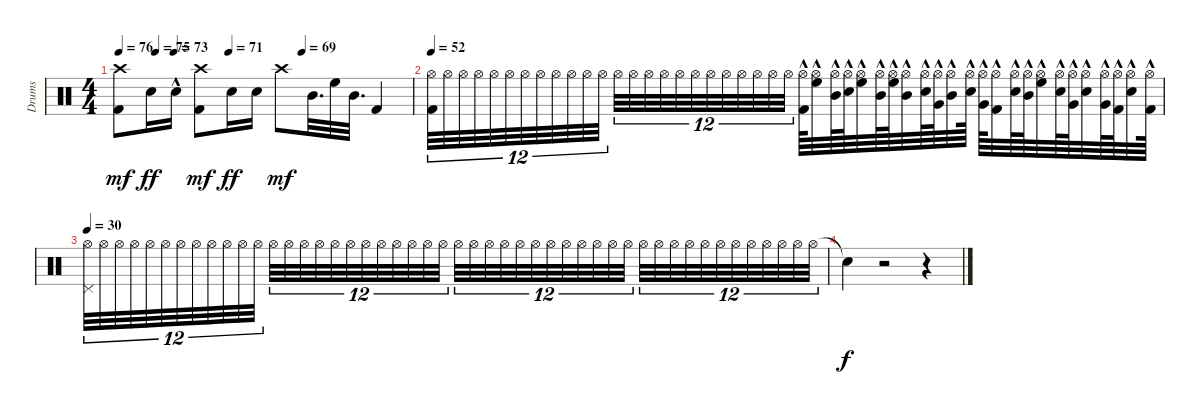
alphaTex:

\track ("Drums" "Drums") {instrument percussion}
\staff {score}
\articulation defaults
\ts (4 4)
\tempo 76
\tempo (75 0.125)
\tempo (73 0.1875)
\tempo (71 0.375)
\tempo (69 0.625)
\clef neutral
\ks c
("Kick (hit) 2" "Crash high (hit)").8{dy mf volume 8} "Snare (hit) 2".16{dy ff volume 9} "Snare (hit) 2"{hac}.16{volume 10} ("Kick (hit) 2" "Crash high (hit)").8{dy mf volume 11} "Snare (hit) 2".16{dy ff volume 12} "Snare (hit) 2".16{volume 13} "Crash high (hit)".8{dy mf volume 14} "Mid Tom (hit)".32{d} "High Floor Tom (hit)".32 "Mid Tom (hit)".32{d} "Kick (hit) 2".4 |
\tempo 52
("Kick (hit) 2" "Hi-Hat (open)").32{tu (12 8)} "Hi-Hat (open)".32{tu (12 8)} "Hi-Hat (open)".32{tu (12 8)} "Hi-Hat (open)".32{tu (12 8)} "Hi-Hat (open)".32{tu (12 8)} "Hi-Hat (open)".32{tu (12 8)} "Hi-Hat (open)".32{tu (12 8)} "Hi-Hat (open)".32{tu (12 8)} "Hi-Hat (open)".32{tu (12 8)} "Hi-Hat (open)".32{tu (12 8)} "Hi-Hat (open)".32{tu (12 8)} "Hi-Hat (open)".32{tu (12 8)} "Hi-Hat (open)".32{tu (12 8)} "Hi-Hat (open)".32{tu (12 8)} "Hi-Hat (open)".32{tu (12 8)} "Hi-Hat (open)".32{tu (12 8)} "Hi-Hat (open)".32{tu (12 8)} "Hi-Hat (open)".32{tu (12 8)} "Hi-Hat (open)".32{tu (12 8)} "Hi-Hat (open)".32{tu (12 8)} "Hi-Hat (open)".32{tu (12 8)} "Hi-Hat (open)".32{tu (12 8)} "Hi-Hat (open)".32{tu (12 8)} "Hi-Hat (open)".32{tu (12 8)} ("Kick (hit) 2"{hac} "Hi-Hat (open)").64 ("Hi-Hat (open)" "High Floor Tom (hit)"{hac}).32 ("Hi-Hat (open)" "Mid Tom (hit)"{hac}).64 ("Snare (hit) 2"{hac} "Hi-Hat (open)").64 ("Hi-Hat (open)" "High Floor Tom (hit)"{hac}).32 ("Hi-Hat (open)" "Mid Tom (hit)"{hac}).64 ("Hi-Hat (open)" "High Floor Tom (hit)"{hac}).64 ("Hi-Hat (open)" "Mid Tom (hit)"{hac}).32 ("Snare (hit) 2"{hac} "Hi-Hat (open)").64 ("Very Low Tom (hit)"{hac} "Hi-Hat (open)").64 ("Hi-Hat (open)" "Mid Tom (hit)"{hac}).32 ("Snare (hit) 2"{hac} "Hi-Hat (open)").64 ("Very Low Tom (hit)"{hac} "Hi-Hat (open)").64 ("Kick (hit) 2"{hac} "Hi-Hat (open)").32 ("Snare (hit) 2"{hac} "Hi-Hat (open)").64 ("Hi-Hat (open)" "Mid Tom (hit)"{hac}).64 ("Hi-Hat (open)" "High Floor Tom (hit)"{hac}).32 ("Snare (hit) 2"{hac} "Hi-Hat (open)").64 ("Very Low Tom (hit)"{hac} "Hi-Hat (open)").64 ("Snare (hit) 2"{hac} "Hi-Hat (open)").32 ("Very Low Tom (hit)"{hac} "Hi-Hat (open)").64 ("Kick (hit) 2"{hac} "Hi-Hat (open)").64 ("Snare (hit) 2"{hac} "Hi-Hat (open)").32 ("Kick (hit) 2"{hac} "Hi-Hat (open)").64 |
\tempo 30
("Pedal Hi-Hat (hit)" "Hi-Hat (open)").32{tu (12 8)} "Hi-Hat (open)".32{tu (12 8)} "Hi-Hat (open)".32{tu (12 8)} "Hi-Hat (open)".32{tu (12 8)} "Hi-Hat (open)".32{tu (12 8)} "Hi-Hat (open)".32{tu (12 8)} "Hi-Hat (open)".32{tu (12 8)} "Hi-Hat (open)".32{tu (12 8)} "Hi-Hat (open)".32{tu (12 8)} "Hi-Hat (open)".32{tu (12 8)} "Hi-Hat (open)".32{tu (12 8)} "Hi-Hat (open)".32{tu (12 8)} "Hi-Hat (open)".32{tu (12 8)} "Hi-Hat (open)".32{tu (12 8)} "Hi-Hat (open)".32{tu (12 8)} "Hi-Hat (open)".32{tu (12 8)} "Hi-Hat (open)".32{tu (12 8)} "Hi-Hat (open)".32{tu (12 8)} "Hi-Hat (open)".32{tu (12 8)} "Hi-Hat (open)".32{tu (12 8)} "Hi-Hat (open)".32{tu (12 8)} "Hi-Hat (open)".32{tu (12 8)} "Hi-Hat (open)".32{tu (12 8)} "Hi-Hat (open)".32{tu (12 8)} "Hi-Hat (open)".32{tu (12 8)} "Hi-Hat (open)".32{tu (12 8)} "Hi-Hat (open)".32{tu (12 8)} "Hi-Hat (open)".32{tu (12 8)} "Hi-Hat (open)".32{tu (12 8)} "Hi-Hat (open)".32{tu (12 8)} "Hi-Hat (open)".32{tu (12 8)} "Hi-Hat (open)".32{tu (12 8)} "Hi-Hat (open)".32{tu (12 8)} "Hi-Hat (open)".32{tu (12 8)} "Hi-Hat (open)".32{tu (12 8)} "Hi-Hat (open)".32{tu (12 8)} "Hi-Hat (open)".32{tu (12 8)} "Hi-Hat (open)".32{tu (12 8)} "Hi-Hat (open)".32{tu (12 8)} "Hi-Hat (open)".32{tu (12 8)} "Hi-Hat (open)".32{tu (12 8)} "Hi-Hat (open)".32{tu (12 8)} "Hi-Hat (open)".32{tu (12 8)} "Hi-Hat (open)".32{tu (12 8)} "Hi-Hat (open)".32{tu (12 8)} "Hi-Hat (open)".32{tu (12 8)} "Hi-Hat (open)".32{tu (12 8)} "Hi-Hat (open)".32{tu (12 8)} |
"Snare (hit)"{t}.4{dy f} r.2 r.4
